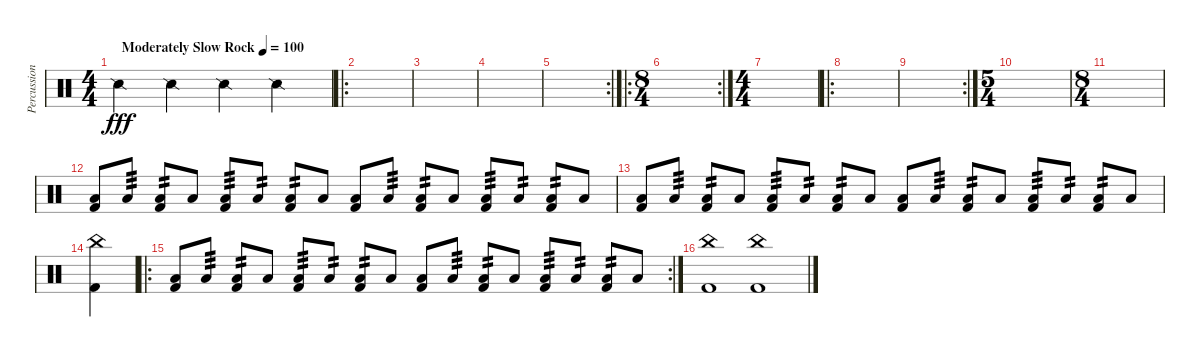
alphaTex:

\track ("Percussion" "Percussion") {instrument percussion}
\staff {score}
\articulation defaults
\ts (4 4)
\tempo (100 "Moderately Slow Rock")
\clef neutral
\ks c "Snare (side stick) 2".4{dy fff volume 0} "Snare (side stick) 2".4 "Snare (side stick) 2".4 "Snare (side stick) 2".4
|
\ro
|
|
|
\rc 2
|
\ro
\rc 2
\ts (8 4)
|
\ts (4 4)
|
\ro
|
\rc 2
|
\ts (5 4)
|
\ts (8 4)
|
("Low Floor Tom (hit)" "Kick (hit) 2").8{volume 16} "Low Floor Tom (hit)".8{tp 3} ("Low Floor Tom (hit)" "Kick (hit) 2").8{tp 2} "Low Floor Tom (hit)".8 ("Low Floor Tom (hit)" "Kick (hit) 2").8{tp 3} "Low Floor Tom (hit)".8{tp 2} ("Low Floor Tom (hit)" "Kick (hit) 2").8{tp 2} "Low Floor Tom (hit)".8 ("Low Floor Tom (hit)" "Kick (hit) 2").8 "Low Floor Tom (hit)".8{tp 3} ("Low Floor Tom (hit)" "Kick (hit) 2").8{tp 2} "Low Floor Tom (hit)".8 ("Low Floor Tom (hit)" "Kick (hit) 2").8{tp 3} "Low Floor Tom (hit)".8{tp 2} ("Low Floor Tom (hit)" "Kick (hit) 2").8{tp 2} "Low Floor Tom (hit)".8 |
("Low Floor Tom (hit)" "Kick (hit) 2").8 "Low Floor Tom (hit)".8{tp 3} ("Low Floor Tom (hit)" "Kick (hit) 2").8{tp 2} "Low Floor Tom (hit)".8 ("Low Floor Tom (hit)" "Kick (hit) 2").8{tp 3} "Low Floor Tom (hit)".8{tp 2} ("Low Floor Tom (hit)" "Kick (hit) 2").8{tp 2} "Low Floor Tom (hit)".8 ("Low Floor Tom (hit)" "Kick (hit) 2").8 "Low Floor Tom (hit)".8{tp 3} ("Low Floor Tom (hit)" "Kick (hit) 2").8{tp 2} "Low Floor Tom (hit)".8 ("Low Floor Tom (hit)" "Kick (hit) 2").8{tp 3} "Low Floor Tom (hit)".8{tp 2} ("Low Floor Tom (hit)" "Kick (hit) 2").8{tp 2} "Low Floor Tom (hit)".8 |
("China (hit)" "Kick (hit) 2").4 |
\ro
\rc 2
("Low Floor Tom (hit)" "Kick (hit) 2").8 "Low Floor Tom (hit)".8{tp 3} ("Low Floor Tom (hit)" "Kick (hit) 2").8{tp 2} "Low Floor Tom (hit)".8 ("Low Floor Tom (hit)" "Kick (hit) 2").8{tp 3} "Low Floor Tom (hit)".8{tp 2} ("Low Floor Tom (hit)" "Kick (hit) 2").8{tp 2} "Low Floor Tom (hit)".8 ("Low Floor Tom (hit)" "Kick (hit) 2").8 "Low Floor Tom (hit)".8{tp 3} ("Low Floor Tom (hit)" "Kick (hit) 2").8{tp 2} "Low Floor Tom (hit)".8 ("Low Floor Tom (hit)" "Kick (hit) 2").8{tp 3} "Low Floor Tom (hit)".8{tp 2} ("Low Floor Tom (hit)" "Kick (hit) 2").8{tp 2} "Low Floor Tom (hit)".8 |
("China (hit)" "Kick (hit) 2").1 ("China (hit)" "Kick (hit) 2").1
